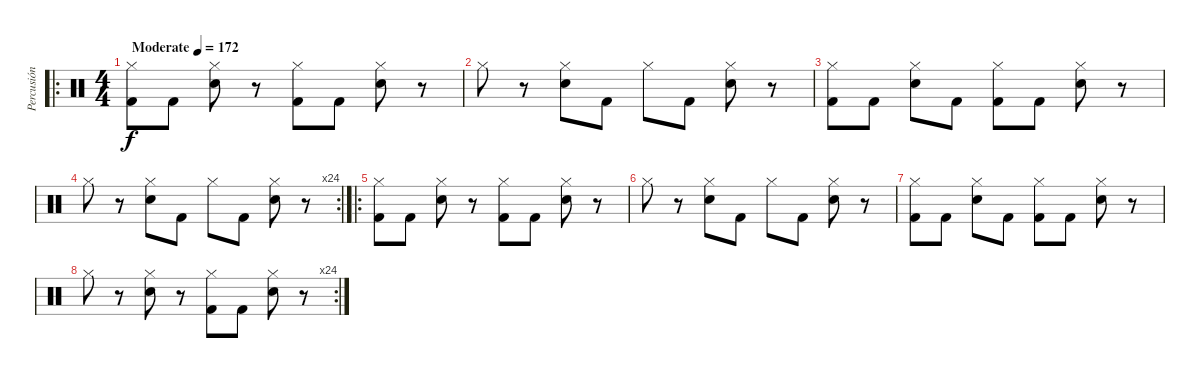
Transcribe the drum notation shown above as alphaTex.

\track ("Percusión" "Percusión") {instrument percussion}
\staff {score}
\articulation defaults
\ro
\ts (4 4)
\tempo (172 "Moderate")
\clef neutral
\ks c
("Hi-Hat (closed)" "Kick (hit) 2").8{dy f} "Kick (hit) 2".8 ("Hi-Hat (closed)" "Electric Snare (hit)").8 r.8 ("Hi-Hat (closed)" "Kick (hit) 2").8 "Kick (hit) 2".8 ("Hi-Hat (closed)" "Electric Snare (hit)").8 r.8 |
"Hi-Hat (closed)".8 r.8 ("Hi-Hat (closed)" "Electric Snare (hit)").8 "Kick (hit) 2".8 "Hi-Hat (closed)".8 "Kick (hit) 2".8 ("Hi-Hat (closed)" "Electric Snare (hit)").8 r.8 |
("Hi-Hat (closed)" "Kick (hit) 2").8 "Kick (hit) 2".8 ("Hi-Hat (closed)" "Electric Snare (hit)").8 "Kick (hit) 2".8 ("Hi-Hat (closed)" "Kick (hit) 2").8 "Kick (hit) 2".8 ("Hi-Hat (closed)" "Electric Snare (hit)").8 r.8 |
\rc 24 "Hi-Hat (closed)".8
r.8 ("Hi-Hat (closed)" "Electric Snare (hit)").8 "Kick (hit) 2".8 "Hi-Hat (closed)".8 "Kick (hit) 2".8 ("Hi-Hat (closed)" "Electric Snare (hit)").8 r.8 |
\ro
("Hi-Hat (closed)" "Kick (hit) 2").8 "Kick (hit) 2".8 ("Hi-Hat (closed)" "Electric Snare (hit)").8 r.8 ("Hi-Hat (closed)" "Kick (hit) 2").8 "Kick (hit) 2".8 ("Hi-Hat (closed)" "Electric Snare (hit)").8 r.8 |
"Hi-Hat (closed)".8 r.8 ("Hi-Hat (closed)" "Electric Snare (hit)").8 "Kick (hit) 2".8 "Hi-Hat (closed)".8 "Kick (hit) 2".8 ("Hi-Hat (closed)" "Electric Snare (hit)").8 r.8 |
("Hi-Hat (closed)" "Kick (hit) 2").8 "Kick (hit) 2".8 ("Hi-Hat (closed)" "Electric Snare (hit)").8 "Kick (hit) 2".8 ("Hi-Hat (closed)" "Kick (hit) 2").8 "Kick (hit) 2".8 ("Hi-Hat (closed)" "Electric Snare (hit)").8 r.8 |
\rc 24 "Hi-Hat (closed)".8
r.8 ("Hi-Hat (closed)" "Electric Snare (hit)").8 r.8 ("Hi-Hat (closed)" "Kick (hit) 2").8 "Kick (hit) 2".8 ("Hi-Hat (closed)" "Electric Snare (hit)").8 r.8
